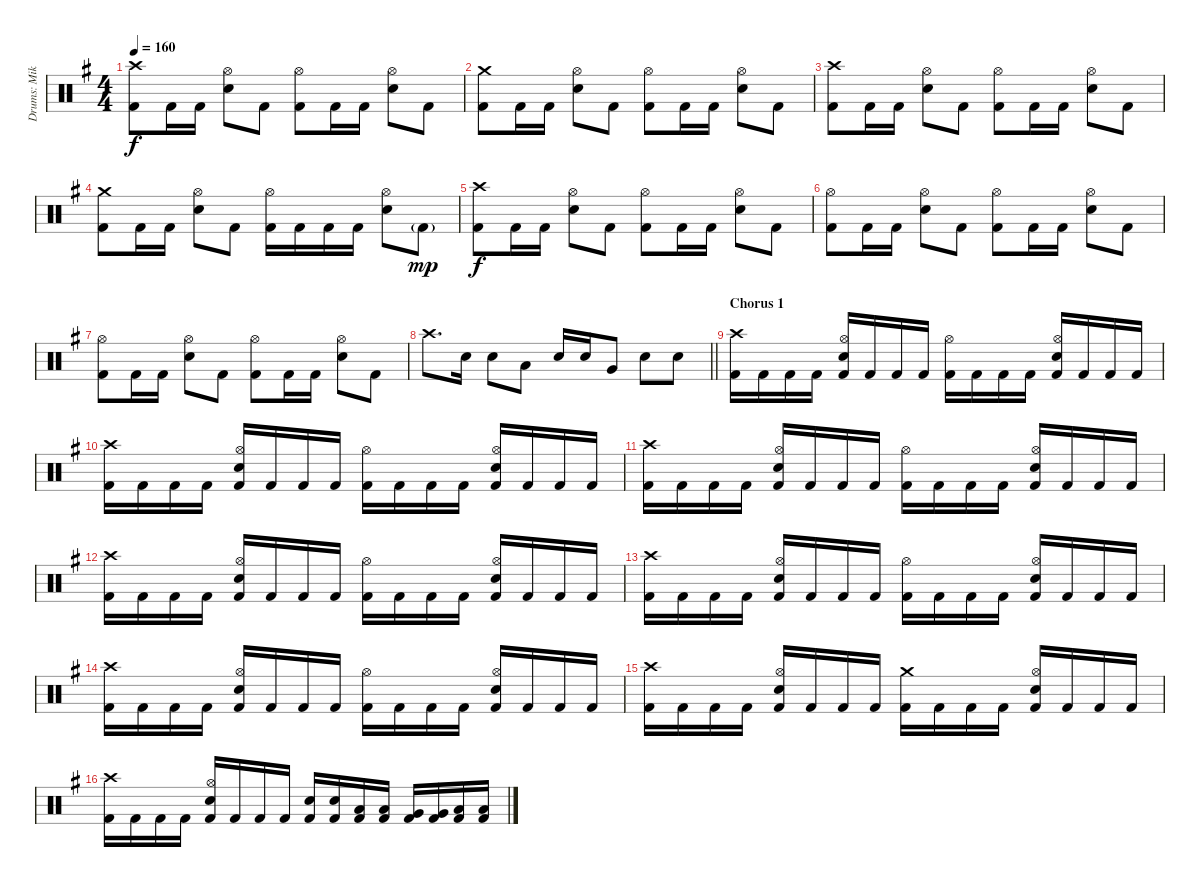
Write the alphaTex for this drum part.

\track ("Drums: Mikko Korsbäck" "Drums: Mik") {instrument percussion}
\staff {score}
\articulation defaults
\ts (4 4)
\tempo 160
\clef neutral
\ks eminor
("Crash high (hit)" "Kick (hit) 2").8{dy f} "Kick (hit) 2".16 "Kick (hit) 2".16 ("Hi-Hat (open)" "Electric Snare (hit)").8 "Kick (hit) 2".8 ("Hi-Hat (open)" "Kick (hit) 2").8 "Kick (hit) 2".16 "Kick (hit) 2".16 ("Hi-Hat (open)" "Electric Snare (hit)").8 "Kick (hit) 2".8 |
("Crash medium (hit)" "Kick (hit) 2").8 "Kick (hit) 2".16 "Kick (hit) 2".16 ("Hi-Hat (open)" "Electric Snare (hit)").8 "Kick (hit) 2".8 ("Hi-Hat (open)" "Kick (hit) 2").8 "Kick (hit) 2".16 "Kick (hit) 2".16 ("Hi-Hat (open)" "Electric Snare (hit)").8 "Kick (hit) 2".8 |
("Crash high (hit)" "Kick (hit) 2").8 "Kick (hit) 2".16 "Kick (hit) 2".16 ("Hi-Hat (open)" "Electric Snare (hit)").8 "Kick (hit) 2".8 ("Hi-Hat (open)" "Kick (hit) 2").8 "Kick (hit) 2".16 "Kick (hit) 2".16 ("Hi-Hat (open)" "Electric Snare (hit)").8 "Kick (hit) 2".8 |
("Crash medium (hit)" "Kick (hit) 2").8 "Kick (hit) 2".16 "Kick (hit) 2".16 ("Hi-Hat (open)" "Electric Snare (hit)").8 "Kick (hit) 2".8 ("Hi-Hat (open)" "Kick (hit) 2").16 "Kick (hit) 2".16 "Kick (hit) 2".16 "Kick (hit) 2".16 ("Hi-Hat (open)" "Electric Snare (hit)").8 "Kick (hit) 2"{g}.8{dy mp} |
("Crash high (hit)" "Kick (hit) 2").8{dy f} "Kick (hit) 2".16 "Kick (hit) 2".16 ("Hi-Hat (open)" "Electric Snare (hit)").8 "Kick (hit) 2".8 ("Hi-Hat (open)" "Kick (hit) 2").8 "Kick (hit) 2".16 "Kick (hit) 2".16 ("Hi-Hat (open)" "Electric Snare (hit)").8 "Kick (hit) 2".8 |
("Hi-Hat (open)" "Kick (hit) 2").8 "Kick (hit) 2".16 "Kick (hit) 2".16 ("Hi-Hat (open)" "Electric Snare (hit)").8 "Kick (hit) 2".8 ("Hi-Hat (open)" "Kick (hit) 2").8 "Kick (hit) 2".16 "Kick (hit) 2".16 ("Hi-Hat (open)" "Electric Snare (hit)").8 "Kick (hit) 2".8 |
("Hi-Hat (open)" "Kick (hit) 2").8 "Kick (hit) 2".16 "Kick (hit) 2".16 ("Hi-Hat (open)" "Electric Snare (hit)").8 "Kick (hit) 2".8 ("Hi-Hat (open)" "Kick (hit) 2").8 "Kick (hit) 2".16 "Kick (hit) 2".16 ("Hi-Hat (open)" "Electric Snare (hit)").8 "Kick (hit) 2".8 |
\barLineRight lightlight "Crash high (hit)".8{d} "Electric Snare (hit)".16 "Electric Snare (hit)".8 "Low Tom (hit)".8 "Electric Snare (hit)".16 "Electric Snare (hit)".16 "Very Low Tom (hit)".8 "Electric Snare (hit)".8 "Electric Snare (hit)".8
|
\section ("" "Chorus 1")
("Crash high (hit)" "Kick (hit) 2").16 "Kick (hit) 2".16 "Kick (hit) 2".16 "Kick (hit) 2".16 ("Hi-Hat (open)" "Electric Snare (hit)" "Kick (hit) 2").16 "Kick (hit) 2".16 "Kick (hit) 2".16 "Kick (hit) 2".16 ("Hi-Hat (open)" "Kick (hit) 2").16 "Kick (hit) 2".16 "Kick (hit) 2".16 "Kick (hit) 2".16 ("Hi-Hat (open)" "Electric Snare (hit)" "Kick (hit) 2").16 "Kick (hit) 2".16 "Kick (hit) 2".16 "Kick (hit) 2".16 |
("Crash high (hit)" "Kick (hit) 2").16 "Kick (hit) 2".16 "Kick (hit) 2".16 "Kick (hit) 2".16 ("Hi-Hat (open)" "Electric Snare (hit)" "Kick (hit) 2").16 "Kick (hit) 2".16 "Kick (hit) 2".16 "Kick (hit) 2".16 ("Hi-Hat (open)" "Kick (hit) 2").16 "Kick (hit) 2".16 "Kick (hit) 2".16 "Kick (hit) 2".16 ("Hi-Hat (open)" "Electric Snare (hit)" "Kick (hit) 2").16 "Kick (hit) 2".16 "Kick (hit) 2".16 "Kick (hit) 2".16 |
("Crash high (hit)" "Kick (hit) 2").16 "Kick (hit) 2".16 "Kick (hit) 2".16 "Kick (hit) 2".16 ("Hi-Hat (open)" "Electric Snare (hit)" "Kick (hit) 2").16 "Kick (hit) 2".16 "Kick (hit) 2".16 "Kick (hit) 2".16 ("Hi-Hat (open)" "Kick (hit) 2").16 "Kick (hit) 2".16 "Kick (hit) 2".16 "Kick (hit) 2".16 ("Hi-Hat (open)" "Electric Snare (hit)" "Kick (hit) 2").16 "Kick (hit) 2".16 "Kick (hit) 2".16 "Kick (hit) 2".16 |
("Crash high (hit)" "Kick (hit) 2").16 "Kick (hit) 2".16 "Kick (hit) 2".16 "Kick (hit) 2".16 ("Hi-Hat (open)" "Electric Snare (hit)" "Kick (hit) 2").16 "Kick (hit) 2".16 "Kick (hit) 2".16 "Kick (hit) 2".16 ("Hi-Hat (open)" "Kick (hit) 2").16 "Kick (hit) 2".16 "Kick (hit) 2".16 "Kick (hit) 2".16 ("Hi-Hat (open)" "Electric Snare (hit)" "Kick (hit) 2").16 "Kick (hit) 2".16 "Kick (hit) 2".16 "Kick (hit) 2".16 |
("Crash high (hit)" "Kick (hit) 2").16 "Kick (hit) 2".16 "Kick (hit) 2".16 "Kick (hit) 2".16 ("Hi-Hat (open)" "Electric Snare (hit)" "Kick (hit) 2").16 "Kick (hit) 2".16 "Kick (hit) 2".16 "Kick (hit) 2".16 ("Hi-Hat (open)" "Kick (hit) 2").16 "Kick (hit) 2".16 "Kick (hit) 2".16 "Kick (hit) 2".16 ("Hi-Hat (open)" "Electric Snare (hit)" "Kick (hit) 2").16 "Kick (hit) 2".16 "Kick (hit) 2".16 "Kick (hit) 2".16 |
("Crash high (hit)" "Kick (hit) 2").16 "Kick (hit) 2".16 "Kick (hit) 2".16 "Kick (hit) 2".16 ("Hi-Hat (open)" "Electric Snare (hit)" "Kick (hit) 2").16 "Kick (hit) 2".16 "Kick (hit) 2".16 "Kick (hit) 2".16 ("Hi-Hat (open)" "Kick (hit) 2").16 "Kick (hit) 2".16 "Kick (hit) 2".16 "Kick (hit) 2".16 ("Hi-Hat (open)" "Electric Snare (hit)" "Kick (hit) 2").16 "Kick (hit) 2".16 "Kick (hit) 2".16 "Kick (hit) 2".16 |
("Crash high (hit)" "Kick (hit) 2").16 "Kick (hit) 2".16 "Kick (hit) 2".16 "Kick (hit) 2".16 ("Hi-Hat (open)" "Electric Snare (hit)" "Kick (hit) 2").16 "Kick (hit) 2".16 "Kick (hit) 2".16 "Kick (hit) 2".16 ("Crash medium (hit)" "Kick (hit) 2").16 "Kick (hit) 2".16 "Kick (hit) 2".16 "Kick (hit) 2".16 ("Hi-Hat (open)" "Electric Snare (hit)" "Kick (hit) 2").16 "Kick (hit) 2".16 "Kick (hit) 2".16 "Kick (hit) 2".16 |
("Crash high (hit)" "Kick (hit) 2").16 "Kick (hit) 2".16 "Kick (hit) 2".16 "Kick (hit) 2".16 ("Hi-Hat (open)" "Electric Snare (hit)" "Kick (hit) 2").16 "Kick (hit) 2".16 "Kick (hit) 2".16 "Kick (hit) 2".16 ("Electric Snare (hit)" "Kick (hit) 2").16 ("Electric Snare (hit)" "Kick (hit) 2").16 ("Low Tom (hit)" "Kick (hit) 2").16 ("Low Tom (hit)" "Kick (hit) 2").16 ("Very Low Tom (hit)" "Kick (hit) 2").16 ("Very Low Tom (hit)" "Kick (hit) 2").16 ("Low Tom (hit)" "Kick (hit) 2").16 ("Low Tom (hit)" "Kick (hit) 2").16
